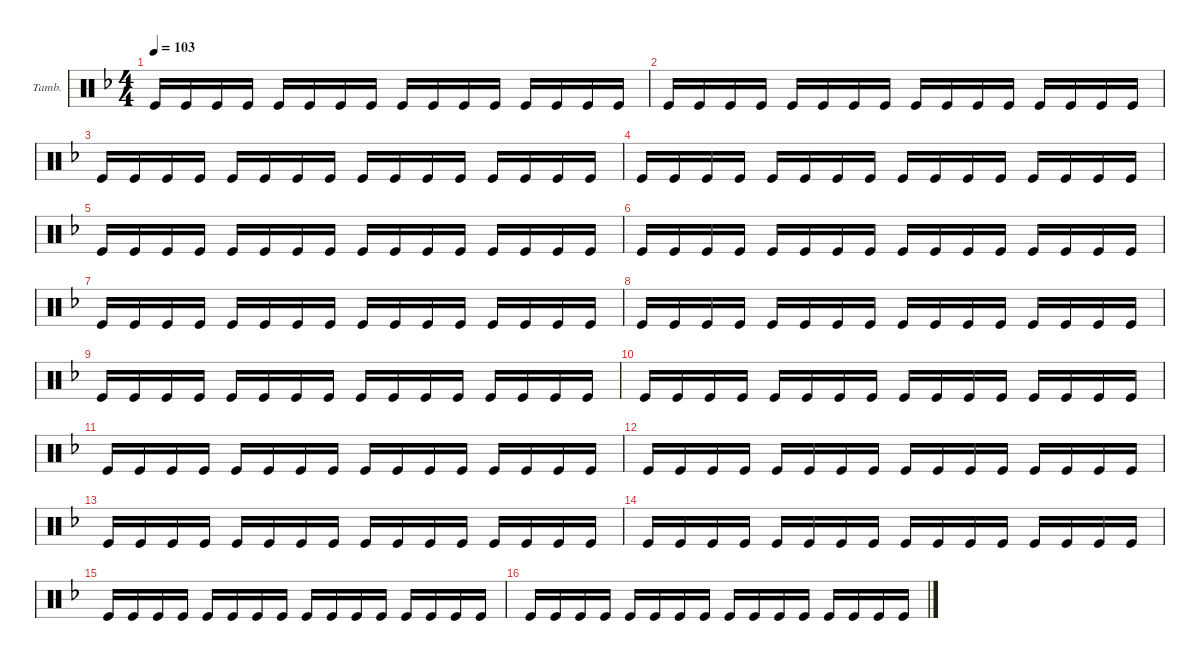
\hideDynamics
\bracketExtendMode groupsimilarinstruments
\firstSystemTrackNameOrientation horizontal
\otherSystemsTrackNameOrientation horizontal
\track ("Tambourine" "Tamb.") {multiBarRest instrument percussion}
\staff {score}
\articulation defaults
\ts (4 4)
\tempo 103
\clef neutral
\ks f "Kick (hit)".16{dy f} "Kick (hit)".16{dy p} "Kick (hit)".16 "Kick (hit)".16 "Kick (hit)".16{dy f} "Kick (hit)".16{dy p} "Kick (hit)".16 "Kick (hit)".16 "Kick (hit)".16{dy f} "Kick (hit)".16{dy p} "Kick (hit)".16 "Kick (hit)".16 "Kick (hit)".16{dy f} "Kick (hit)".16{dy p} "Kick (hit)".16 "Kick (hit)".16
|
"Kick (hit)".16{dy f} "Kick (hit)".16{dy p} "Kick (hit)".16 "Kick (hit)".16 "Kick (hit)".16{dy f} "Kick (hit)".16{dy p} "Kick (hit)".16 "Kick (hit)".16 "Kick (hit)".16{dy f} "Kick (hit)".16{dy p} "Kick (hit)".16 "Kick (hit)".16 "Kick (hit)".16{dy f} "Kick (hit)".16{dy p} "Kick (hit)".16 "Kick (hit)".16 |
"Kick (hit)".16{dy f} "Kick (hit)".16{dy p} "Kick (hit)".16 "Kick (hit)".16 "Kick (hit)".16{dy f} "Kick (hit)".16{dy p} "Kick (hit)".16 "Kick (hit)".16 "Kick (hit)".16{dy f} "Kick (hit)".16{dy p} "Kick (hit)".16 "Kick (hit)".16 "Kick (hit)".16{dy f} "Kick (hit)".16{dy p} "Kick (hit)".16 "Kick (hit)".16 |
"Kick (hit)".16{dy f} "Kick (hit)".16{dy p} "Kick (hit)".16 "Kick (hit)".16 "Kick (hit)".16{dy f} "Kick (hit)".16{dy p} "Kick (hit)".16 "Kick (hit)".16 "Kick (hit)".16{dy f} "Kick (hit)".16{dy p} "Kick (hit)".16 "Kick (hit)".16 "Kick (hit)".16{dy f} "Kick (hit)".16{dy p} "Kick (hit)".16 "Kick (hit)".16 |
"Kick (hit)".16{dy f} "Kick (hit)".16{dy p} "Kick (hit)".16 "Kick (hit)".16 "Kick (hit)".16{dy f} "Kick (hit)".16{dy p} "Kick (hit)".16 "Kick (hit)".16 "Kick (hit)".16{dy f} "Kick (hit)".16{dy p} "Kick (hit)".16 "Kick (hit)".16 "Kick (hit)".16{dy f} "Kick (hit)".16{dy p} "Kick (hit)".16 "Kick (hit)".16 |
"Kick (hit)".16{dy f} "Kick (hit)".16{dy p} "Kick (hit)".16 "Kick (hit)".16 "Kick (hit)".16{dy f} "Kick (hit)".16{dy p} "Kick (hit)".16 "Kick (hit)".16 "Kick (hit)".16{dy f} "Kick (hit)".16{dy p} "Kick (hit)".16 "Kick (hit)".16 "Kick (hit)".16{dy f} "Kick (hit)".16{dy p} "Kick (hit)".16 "Kick (hit)".16 |
"Kick (hit)".16{dy f} "Kick (hit)".16{dy p} "Kick (hit)".16 "Kick (hit)".16 "Kick (hit)".16{dy f} "Kick (hit)".16{dy p} "Kick (hit)".16 "Kick (hit)".16 "Kick (hit)".16{dy f} "Kick (hit)".16{dy p} "Kick (hit)".16 "Kick (hit)".16 "Kick (hit)".16{dy f} "Kick (hit)".16{dy p} "Kick (hit)".16 "Kick (hit)".16 |
"Kick (hit)".16{dy f} "Kick (hit)".16{dy p} "Kick (hit)".16 "Kick (hit)".16 "Kick (hit)".16{dy f} "Kick (hit)".16{dy p} "Kick (hit)".16 "Kick (hit)".16 "Kick (hit)".16{dy f} "Kick (hit)".16{dy p} "Kick (hit)".16 "Kick (hit)".16 "Kick (hit)".16{dy f} "Kick (hit)".16{dy p} "Kick (hit)".16 "Kick (hit)".16 |
"Kick (hit)".16{dy f} "Kick (hit)".16{dy p} "Kick (hit)".16 "Kick (hit)".16 "Kick (hit)".16{dy f} "Kick (hit)".16{dy p} "Kick (hit)".16 "Kick (hit)".16 "Kick (hit)".16{dy f} "Kick (hit)".16{dy p} "Kick (hit)".16 "Kick (hit)".16 "Kick (hit)".16{dy f} "Kick (hit)".16{dy p} "Kick (hit)".16 "Kick (hit)".16 |
"Kick (hit)".16{dy f} "Kick (hit)".16{dy p} "Kick (hit)".16 "Kick (hit)".16 "Kick (hit)".16{dy f} "Kick (hit)".16{dy p} "Kick (hit)".16 "Kick (hit)".16 "Kick (hit)".16{dy f} "Kick (hit)".16{dy p} "Kick (hit)".16 "Kick (hit)".16 "Kick (hit)".16{dy f} "Kick (hit)".16{dy p} "Kick (hit)".16 "Kick (hit)".16 |
"Kick (hit)".16{dy f} "Kick (hit)".16{dy p} "Kick (hit)".16 "Kick (hit)".16 "Kick (hit)".16{dy f} "Kick (hit)".16{dy p} "Kick (hit)".16 "Kick (hit)".16 "Kick (hit)".16{dy f} "Kick (hit)".16{dy p} "Kick (hit)".16 "Kick (hit)".16 "Kick (hit)".16{dy f} "Kick (hit)".16{dy p} "Kick (hit)".16 "Kick (hit)".16 |
"Kick (hit)".16{dy f} "Kick (hit)".16{dy p} "Kick (hit)".16 "Kick (hit)".16 "Kick (hit)".16{dy f} "Kick (hit)".16{dy p} "Kick (hit)".16 "Kick (hit)".16 "Kick (hit)".16{dy f} "Kick (hit)".16{dy p} "Kick (hit)".16 "Kick (hit)".16 "Kick (hit)".16{dy f} "Kick (hit)".16{dy p} "Kick (hit)".16 "Kick (hit)".16 |
"Kick (hit)".16{dy f} "Kick (hit)".16{dy p} "Kick (hit)".16 "Kick (hit)".16 "Kick (hit)".16{dy f} "Kick (hit)".16{dy p} "Kick (hit)".16 "Kick (hit)".16 "Kick (hit)".16{dy f} "Kick (hit)".16{dy p} "Kick (hit)".16 "Kick (hit)".16 "Kick (hit)".16{dy f} "Kick (hit)".16{dy p} "Kick (hit)".16 "Kick (hit)".16 |
"Kick (hit)".16{dy f} "Kick (hit)".16{dy p} "Kick (hit)".16 "Kick (hit)".16 "Kick (hit)".16{dy f} "Kick (hit)".16{dy p} "Kick (hit)".16 "Kick (hit)".16 "Kick (hit)".16{dy f} "Kick (hit)".16{dy p} "Kick (hit)".16 "Kick (hit)".16 "Kick (hit)".16{dy f} "Kick (hit)".16{dy p} "Kick (hit)".16 "Kick (hit)".16 |
"Kick (hit)".16{dy f} "Kick (hit)".16{dy p} "Kick (hit)".16 "Kick (hit)".16 "Kick (hit)".16{dy f} "Kick (hit)".16{dy p} "Kick (hit)".16 "Kick (hit)".16 "Kick (hit)".16{dy f} "Kick (hit)".16{dy p} "Kick (hit)".16 "Kick (hit)".16 "Kick (hit)".16{dy f} "Kick (hit)".16{dy p} "Kick (hit)".16 "Kick (hit)".16 |
"Kick (hit)".16{dy f} "Kick (hit)".16{dy p} "Kick (hit)".16 "Kick (hit)".16 "Kick (hit)".16{dy f} "Kick (hit)".16{dy p} "Kick (hit)".16 "Kick (hit)".16 "Kick (hit)".16{dy f} "Kick (hit)".16{dy p} "Kick (hit)".16 "Kick (hit)".16 "Kick (hit)".16{dy f} "Kick (hit)".16{dy p} "Kick (hit)".16 "Kick (hit)".16
